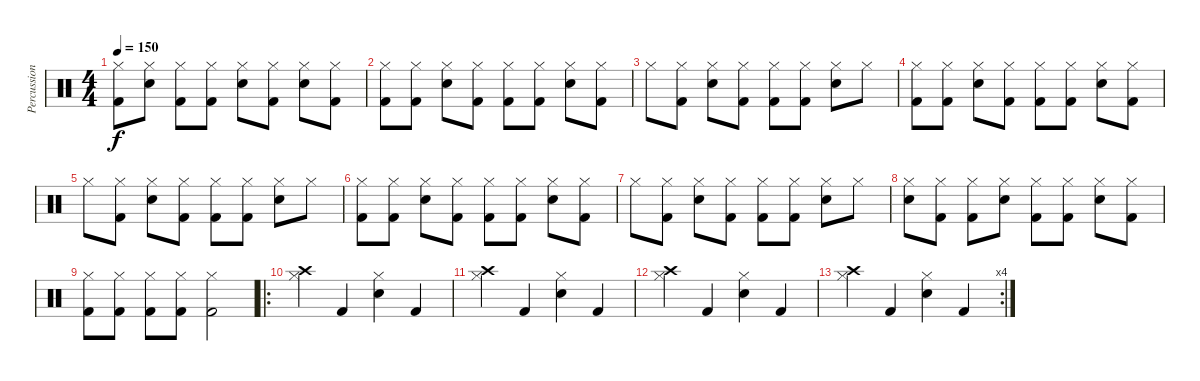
\track ("Percussion" "Percussion") {instrument percussion}
\staff {score}
\articulation defaults
\ts (4 4)
\tempo 150
\clef neutral
\ks c
("Hi-Hat (closed)" "Kick (hit) 2").8{dy f} ("Electric Snare (hit)" "Hi-Hat (closed)").8 ("Hi-Hat (closed)" "Kick (hit) 2").8 ("Hi-Hat (closed)" "Kick (hit) 2").8 ("Electric Snare (hit)" "Hi-Hat (closed)").8 ("Hi-Hat (closed)" "Kick (hit) 2").8 ("Electric Snare (hit)" "Hi-Hat (closed)").8 ("Hi-Hat (closed)" "Kick (hit) 2").8 |
("Hi-Hat (closed)" "Kick (hit) 2").8 ("Hi-Hat (closed)" "Kick (hit) 2").8 ("Electric Snare (hit)" "Hi-Hat (closed)").8 ("Hi-Hat (closed)" "Kick (hit) 2").8 ("Hi-Hat (closed)" "Kick (hit) 2").8 ("Hi-Hat (closed)" "Kick (hit) 2").8 ("Electric Snare (hit)" "Hi-Hat (closed)").8 ("Hi-Hat (closed)" "Kick (hit) 2").8 |
"Hi-Hat (closed)".8 ("Hi-Hat (closed)" "Kick (hit) 2").8 ("Electric Snare (hit)" "Hi-Hat (closed)").8 ("Hi-Hat (closed)" "Kick (hit) 2").8 ("Hi-Hat (closed)" "Kick (hit) 2").8 ("Hi-Hat (closed)" "Kick (hit) 2").8 ("Electric Snare (hit)" "Hi-Hat (closed)").8 "Hi-Hat (closed)".8 |
("Hi-Hat (closed)" "Kick (hit) 2").8 ("Hi-Hat (closed)" "Kick (hit) 2").8 ("Electric Snare (hit)" "Hi-Hat (closed)").8 ("Hi-Hat (closed)" "Kick (hit) 2").8 ("Hi-Hat (closed)" "Kick (hit) 2").8 ("Hi-Hat (closed)" "Kick (hit) 2").8 ("Electric Snare (hit)" "Hi-Hat (closed)").8 ("Hi-Hat (closed)" "Kick (hit) 2").8 |
"Hi-Hat (closed)".8 ("Hi-Hat (closed)" "Kick (hit) 2").8 ("Electric Snare (hit)" "Hi-Hat (closed)").8 ("Hi-Hat (closed)" "Kick (hit) 2").8 ("Hi-Hat (closed)" "Kick (hit) 2").8 ("Hi-Hat (closed)" "Kick (hit) 2").8 ("Electric Snare (hit)" "Hi-Hat (closed)").8 "Hi-Hat (closed)".8 |
("Hi-Hat (closed)" "Kick (hit) 2").8 ("Hi-Hat (closed)" "Kick (hit) 2").8 ("Electric Snare (hit)" "Hi-Hat (closed)").8 ("Hi-Hat (closed)" "Kick (hit) 2").8 ("Hi-Hat (closed)" "Kick (hit) 2").8 ("Hi-Hat (closed)" "Kick (hit) 2").8 ("Electric Snare (hit)" "Hi-Hat (closed)").8 ("Hi-Hat (closed)" "Kick (hit) 2").8 |
"Hi-Hat (closed)".8 ("Hi-Hat (closed)" "Kick (hit) 2").8 ("Electric Snare (hit)" "Hi-Hat (closed)").8 ("Hi-Hat (closed)" "Kick (hit) 2").8 ("Hi-Hat (closed)" "Kick (hit) 2").8 ("Hi-Hat (closed)" "Kick (hit) 2").8 ("Electric Snare (hit)" "Hi-Hat (closed)").8 "Hi-Hat (closed)".8 |
("Electric Snare (hit)" "Hi-Hat (closed)").8 ("Hi-Hat (closed)" "Kick (hit) 2").8 ("Hi-Hat (closed)" "Kick (hit) 2").8 ("Electric Snare (hit)" "Hi-Hat (closed)").8 ("Hi-Hat (closed)" "Kick (hit) 2").8 ("Hi-Hat (closed)" "Kick (hit) 2").8 ("Electric Snare (hit)" "Hi-Hat (closed)").8 ("Hi-Hat (closed)" "Kick (hit) 2").8 |
("Hi-Hat (closed)" "Kick (hit) 2").8 ("Hi-Hat (closed)" "Kick (hit) 2").8 ("Hi-Hat (closed)" "Kick (hit) 2").8 ("Hi-Hat (closed)" "Kick (hit) 2").8 ("Hi-Hat (closed)" "Kick (hit) 2").2 |
\ro
("Crash high (hit)" "Hi-Hat (closed)").4 "Kick (hit) 2".4 ("Electric Snare (hit)" "Hi-Hat (closed)").4 "Kick (hit) 2".4 |
("Crash high (hit)" "Hi-Hat (closed)").4 "Kick (hit) 2".4 ("Electric Snare (hit)" "Hi-Hat (closed)").4 "Kick (hit) 2".4 |
("Crash high (hit)" "Hi-Hat (closed)").4 "Kick (hit) 2".4 ("Electric Snare (hit)" "Hi-Hat (closed)").4 "Kick (hit) 2".4 |
\rc 4
("Crash high (hit)" "Hi-Hat (closed)").4 "Kick (hit) 2".4 ("Electric Snare (hit)" "Hi-Hat (closed)").4 "Kick (hit) 2".4
